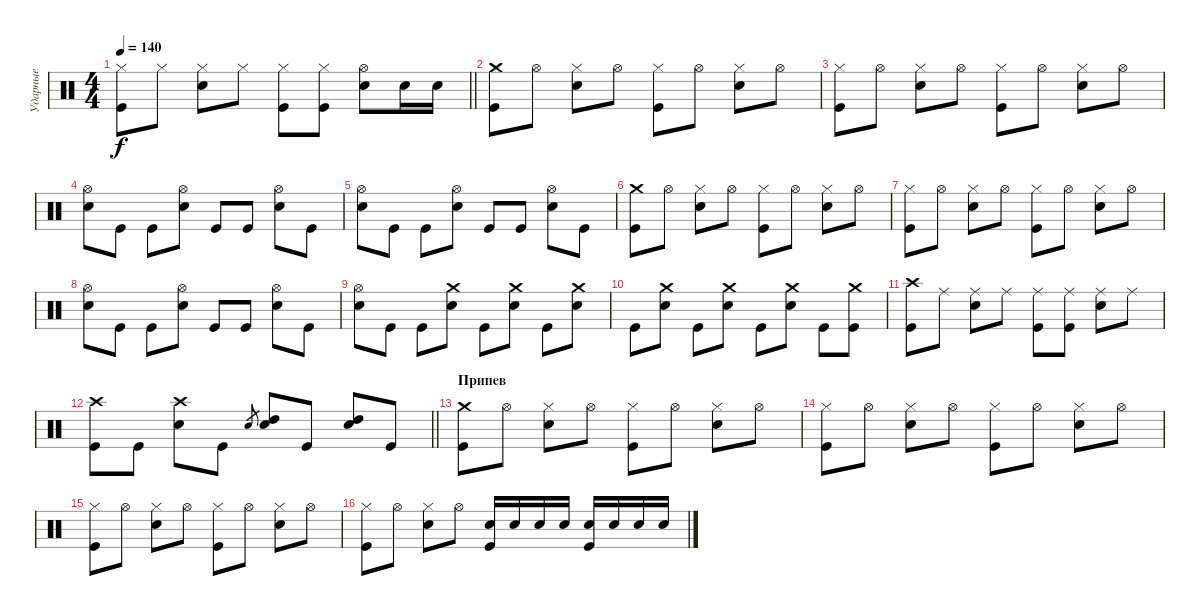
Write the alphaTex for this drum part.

\track ("Ударные" "Ударные") {instrument percussion}
\staff {score}
\articulation defaults
\ts (4 4)
\tempo 140
\clef neutral
\barLineRight lightlight
\ks c
("Hi-Hat (closed)" "Kick (hit)").8{dy f} "Hi-Hat (closed)".8 ("Hi-Hat (closed)" "Electric Snare (hit)").8 "Hi-Hat (closed)".8 ("Hi-Hat (closed)" "Kick (hit)").8 ("Hi-Hat (closed)" "Kick (hit)").8 ("Hi-Hat (open)" "Electric Snare (hit)").8 "Electric Snare (hit)".16 "Electric Snare (hit)".16 |
\section ("" " ")
("Crash medium (hit)" "Kick (hit)").8 "Hi-Hat (open)".8 ("Hi-Hat (closed)" "Electric Snare (hit)").8 "Hi-Hat (open)".8 ("Hi-Hat (closed)" "Kick (hit)").8 "Hi-Hat (open)".8 ("Hi-Hat (closed)" "Electric Snare (hit)").8 "Hi-Hat (open)".8 |
("Hi-Hat (closed)" "Kick (hit)").8 "Hi-Hat (open)".8 ("Hi-Hat (closed)" "Electric Snare (hit)").8 "Hi-Hat (open)".8 ("Hi-Hat (closed)" "Kick (hit)").8 "Hi-Hat (open)".8 ("Hi-Hat (closed)" "Electric Snare (hit)").8 "Hi-Hat (open)".8 |
("Hi-Hat (open)" "Electric Snare (hit)").8 "Kick (hit)".8 "Kick (hit)".8 ("Hi-Hat (open)" "Electric Snare (hit)").8 "Kick (hit)".8 "Kick (hit)".8 ("Hi-Hat (open)" "Electric Snare (hit)").8 "Kick (hit)".8 |
("Hi-Hat (open)" "Electric Snare (hit)").8 "Kick (hit)".8 "Kick (hit)".8 ("Hi-Hat (open)" "Electric Snare (hit)").8 "Kick (hit)".8 "Kick (hit)".8 ("Hi-Hat (open)" "Electric Snare (hit)").8 "Kick (hit)".8 |
("Crash medium (hit)" "Kick (hit)").8 "Hi-Hat (open)".8 ("Hi-Hat (closed)" "Electric Snare (hit)").8 "Hi-Hat (open)".8 ("Hi-Hat (closed)" "Kick (hit)").8 "Hi-Hat (open)".8 ("Hi-Hat (closed)" "Electric Snare (hit)").8 "Hi-Hat (open)".8 |
("Hi-Hat (closed)" "Kick (hit)").8 "Hi-Hat (open)".8 ("Hi-Hat (closed)" "Electric Snare (hit)").8 "Hi-Hat (open)".8 ("Hi-Hat (closed)" "Kick (hit)").8 "Hi-Hat (open)".8 ("Hi-Hat (closed)" "Electric Snare (hit)").8 "Hi-Hat (open)".8 |
("Hi-Hat (open)" "Electric Snare (hit)").8 "Kick (hit)".8 "Kick (hit)".8 ("Hi-Hat (open)" "Electric Snare (hit)").8 "Kick (hit)".8 "Kick (hit)".8 ("Hi-Hat (open)" "Electric Snare (hit)").8 "Kick (hit)".8 |
("Hi-Hat (open)" "Electric Snare (hit)").8 "Kick (hit)".8 "Kick (hit)".8 ("Crash medium (hit)" "Electric Snare (hit)").8 "Kick (hit)".8 ("Crash medium (hit)" "Electric Snare (hit)").8 "Kick (hit)".8 ("Crash medium (hit)" "Electric Snare (hit)").8 |
"Kick (hit)".8 ("Crash medium (hit)" "Electric Snare (hit)").8 "Kick (hit)".8 ("Crash medium (hit)" "Electric Snare (hit)").8 "Kick (hit)".8 ("Crash medium (hit)" "Electric Snare (hit)").8 "Kick (hit)".8 ("Crash medium (hit)" "Kick (hit)").8 |
("Crash high (hit)" "Kick (hit)").8 "Ride (middle)".8 ("Ride (middle)" "Electric Snare (hit)").8 "Ride (middle)".8 ("Ride (middle)" "Kick (hit)").8 ("Ride (middle)" "Kick (hit)").8 ("Ride (middle)" "Electric Snare (hit)").8 "Ride (middle)".8 |
\barLineRight lightlight
("Crash high (hit)" "Kick (hit)").8 "Kick (hit)".8 ("Crash high (hit)" "Electric Snare (hit)").8 "Kick (hit)".8 "Electric Snare (hit)".8{gr} ("High Tom (hit)" "Electric Snare (hit)").8 "Kick (hit)".8 ("High Tom (hit)" "Electric Snare (hit)").8 "Kick (hit)".8 |
\section ("" "Припев")
("Crash medium (hit)" "Kick (hit)").8 "Hi-Hat (open)".8 ("Hi-Hat (closed)" "Electric Snare (hit)").8 "Hi-Hat (open)".8 ("Hi-Hat (closed)" "Kick (hit)").8 "Hi-Hat (open)".8 ("Hi-Hat (closed)" "Electric Snare (hit)").8 "Hi-Hat (open)".8 |
("Hi-Hat (closed)" "Kick (hit)").8 "Hi-Hat (open)".8 ("Hi-Hat (closed)" "Electric Snare (hit)").8 "Hi-Hat (open)".8 ("Hi-Hat (closed)" "Kick (hit)").8 "Hi-Hat (open)".8 ("Hi-Hat (closed)" "Electric Snare (hit)").8 "Hi-Hat (open)".8 |
("Hi-Hat (closed)" "Kick (hit)").8 "Hi-Hat (open)".8 ("Hi-Hat (closed)" "Electric Snare (hit)").8 "Hi-Hat (open)".8 ("Hi-Hat (closed)" "Kick (hit)").8 "Hi-Hat (open)".8 ("Hi-Hat (closed)" "Electric Snare (hit)").8 "Hi-Hat (open)".8 |
("Hi-Hat (closed)" "Kick (hit)").8 "Hi-Hat (open)".8 ("Hi-Hat (closed)" "Electric Snare (hit)").8 "Hi-Hat (open)".8 ("Electric Snare (hit)" "Kick (hit)").16 "Electric Snare (hit)".16 "Electric Snare (hit)".16 "Electric Snare (hit)".16 ("Electric Snare (hit)" "Kick (hit)").16 "Electric Snare (hit)".16 "Electric Snare (hit)".16 "Electric Snare (hit)".16
